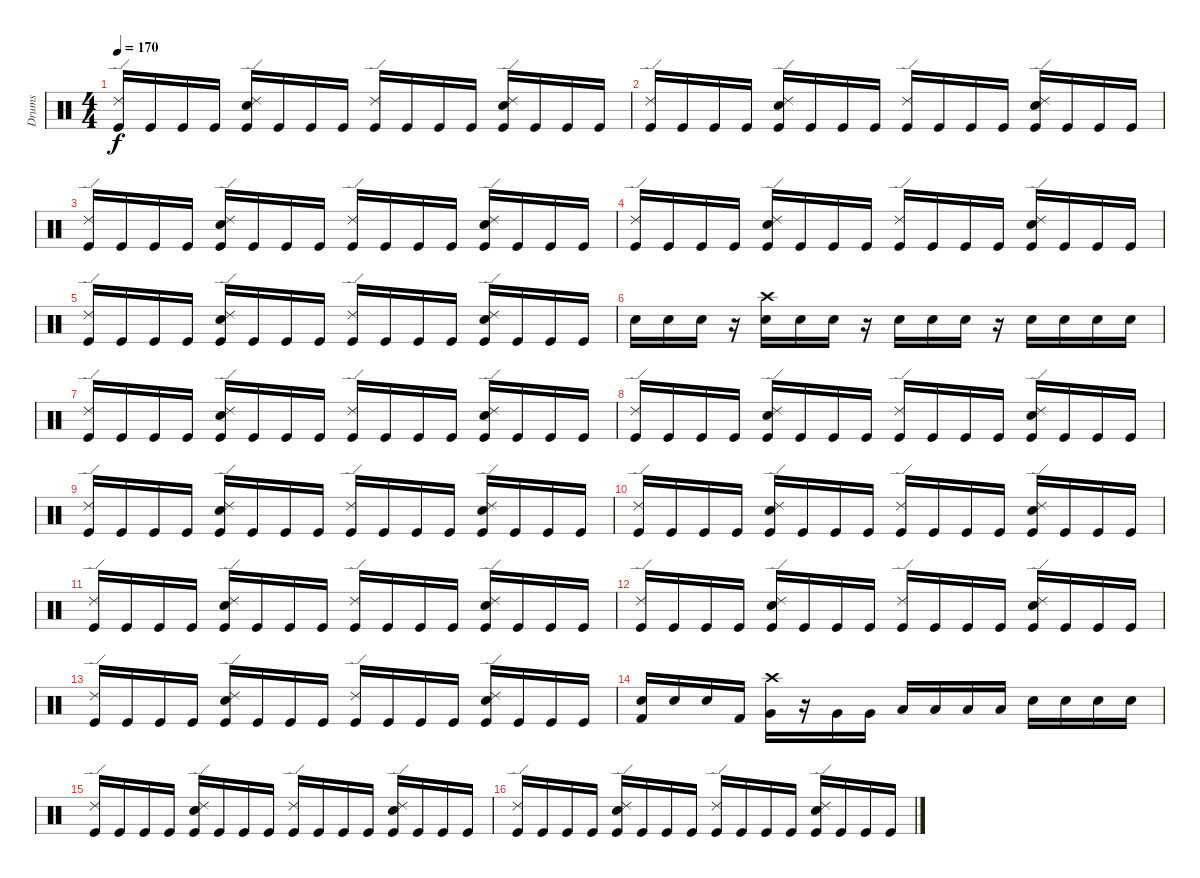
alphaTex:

\track ("Drums" "Drums") {instrument percussion}
\staff {score}
\articulation defaults
\ts (4 4)
\tempo 170
\clef neutral
\ks c
("Ride (edge) 2" "Kick (hit)").16{dy f} "Kick (hit)".16 "Kick (hit)".16 "Kick (hit)".16 ("Ride (edge) 2" "Electric Snare (hit)" "Kick (hit)").16 "Kick (hit)".16 "Kick (hit)".16 "Kick (hit)".16 ("Ride (edge) 2" "Kick (hit)").16 "Kick (hit)".16 "Kick (hit)".16 "Kick (hit)".16 ("Ride (edge) 2" "Electric Snare (hit)" "Kick (hit)").16 "Kick (hit)".16 "Kick (hit)".16 "Kick (hit)".16 |
("Ride (edge) 2" "Kick (hit)").16 "Kick (hit)".16 "Kick (hit)".16 "Kick (hit)".16 ("Ride (edge) 2" "Electric Snare (hit)" "Kick (hit)").16 "Kick (hit)".16 "Kick (hit)".16 "Kick (hit)".16 ("Ride (edge) 2" "Kick (hit)").16 "Kick (hit)".16 "Kick (hit)".16 "Kick (hit)".16 ("Ride (edge) 2" "Electric Snare (hit)" "Kick (hit)").16 "Kick (hit)".16 "Kick (hit)".16 "Kick (hit)".16 |
("Ride (edge) 2" "Kick (hit)").16 "Kick (hit)".16 "Kick (hit)".16 "Kick (hit)".16 ("Ride (edge) 2" "Electric Snare (hit)" "Kick (hit)").16 "Kick (hit)".16 "Kick (hit)".16 "Kick (hit)".16 ("Ride (edge) 2" "Kick (hit)").16 "Kick (hit)".16 "Kick (hit)".16 "Kick (hit)".16 ("Ride (edge) 2" "Electric Snare (hit)" "Kick (hit)").16 "Kick (hit)".16 "Kick (hit)".16 "Kick (hit)".16 |
("Ride (edge) 2" "Kick (hit)").16 "Kick (hit)".16 "Kick (hit)".16 "Kick (hit)".16 ("Ride (edge) 2" "Electric Snare (hit)" "Kick (hit)").16 "Kick (hit)".16 "Kick (hit)".16 "Kick (hit)".16 ("Ride (edge) 2" "Kick (hit)").16 "Kick (hit)".16 "Kick (hit)".16 "Kick (hit)".16 ("Ride (edge) 2" "Electric Snare (hit)" "Kick (hit)").16 "Kick (hit)".16 "Kick (hit)".16 "Kick (hit)".16 |
("Ride (edge) 2" "Kick (hit)").16 "Kick (hit)".16 "Kick (hit)".16 "Kick (hit)".16 ("Ride (edge) 2" "Electric Snare (hit)" "Kick (hit)").16 "Kick (hit)".16 "Kick (hit)".16 "Kick (hit)".16 ("Ride (edge) 2" "Kick (hit)").16 "Kick (hit)".16 "Kick (hit)".16 "Kick (hit)".16 ("Ride (edge) 2" "Electric Snare (hit)" "Kick (hit)").16 "Kick (hit)".16 "Kick (hit)".16 "Kick (hit)".16 |
"Electric Snare (hit)".16 "Electric Snare (hit)".16 "Electric Snare (hit)".16 r.16 ("Crash high (hit)" "Electric Snare (hit)").16 "Electric Snare (hit)".16 "Electric Snare (hit)".16 r.16 "Electric Snare (hit)".16 "Electric Snare (hit)".16 "Electric Snare (hit)".16 r.16 "Electric Snare (hit)".16 "Electric Snare (hit)".16 "Electric Snare (hit)".16 "Electric Snare (hit)".16 |
("Ride (edge) 2" "Kick (hit)").16 "Kick (hit)".16 "Kick (hit)".16 "Kick (hit)".16 ("Ride (edge) 2" "Electric Snare (hit)" "Kick (hit)").16 "Kick (hit)".16 "Kick (hit)".16 "Kick (hit)".16 ("Ride (edge) 2" "Kick (hit)").16 "Kick (hit)".16 "Kick (hit)".16 "Kick (hit)".16 ("Ride (edge) 2" "Electric Snare (hit)" "Kick (hit)").16 "Kick (hit)".16 "Kick (hit)".16 "Kick (hit)".16 |
("Ride (edge) 2" "Kick (hit)").16 "Kick (hit)".16 "Kick (hit)".16 "Kick (hit)".16 ("Ride (edge) 2" "Electric Snare (hit)" "Kick (hit)").16 "Kick (hit)".16 "Kick (hit)".16 "Kick (hit)".16 ("Ride (edge) 2" "Kick (hit)").16 "Kick (hit)".16 "Kick (hit)".16 "Kick (hit)".16 ("Ride (edge) 2" "Electric Snare (hit)" "Kick (hit)").16 "Kick (hit)".16 "Kick (hit)".16 "Kick (hit)".16 |
("Ride (edge) 2" "Kick (hit)").16 "Kick (hit)".16 "Kick (hit)".16 "Kick (hit)".16 ("Ride (edge) 2" "Electric Snare (hit)" "Kick (hit)").16 "Kick (hit)".16 "Kick (hit)".16 "Kick (hit)".16 ("Ride (edge) 2" "Kick (hit)").16 "Kick (hit)".16 "Kick (hit)".16 "Kick (hit)".16 ("Ride (edge) 2" "Electric Snare (hit)" "Kick (hit)").16 "Kick (hit)".16 "Kick (hit)".16 "Kick (hit)".16 |
("Ride (edge) 2" "Kick (hit)").16 "Kick (hit)".16 "Kick (hit)".16 "Kick (hit)".16 ("Ride (edge) 2" "Electric Snare (hit)" "Kick (hit)").16 "Kick (hit)".16 "Kick (hit)".16 "Kick (hit)".16 ("Ride (edge) 2" "Kick (hit)").16 "Kick (hit)".16 "Kick (hit)".16 "Kick (hit)".16 ("Ride (edge) 2" "Electric Snare (hit)" "Kick (hit)").16 "Kick (hit)".16 "Kick (hit)".16 "Kick (hit)".16 |
("Ride (edge) 2" "Kick (hit)").16 "Kick (hit)".16 "Kick (hit)".16 "Kick (hit)".16 ("Ride (edge) 2" "Electric Snare (hit)" "Kick (hit)").16 "Kick (hit)".16 "Kick (hit)".16 "Kick (hit)".16 ("Ride (edge) 2" "Kick (hit)").16 "Kick (hit)".16 "Kick (hit)".16 "Kick (hit)".16 ("Ride (edge) 2" "Electric Snare (hit)" "Kick (hit)").16 "Kick (hit)".16 "Kick (hit)".16 "Kick (hit)".16 |
("Ride (edge) 2" "Kick (hit)").16 "Kick (hit)".16 "Kick (hit)".16 "Kick (hit)".16 ("Ride (edge) 2" "Electric Snare (hit)" "Kick (hit)").16 "Kick (hit)".16 "Kick (hit)".16 "Kick (hit)".16 ("Ride (edge) 2" "Kick (hit)").16 "Kick (hit)".16 "Kick (hit)".16 "Kick (hit)".16 ("Ride (edge) 2" "Electric Snare (hit)" "Kick (hit)").16 "Kick (hit)".16 "Kick (hit)".16 "Kick (hit)".16 |
("Ride (edge) 2" "Kick (hit)").16 "Kick (hit)".16 "Kick (hit)".16 "Kick (hit)".16 ("Ride (edge) 2" "Electric Snare (hit)" "Kick (hit)").16 "Kick (hit)".16 "Kick (hit)".16 "Kick (hit)".16 ("Ride (edge) 2" "Kick (hit)").16 "Kick (hit)".16 "Kick (hit)".16 "Kick (hit)".16 ("Ride (edge) 2" "Electric Snare (hit)" "Kick (hit)").16 "Kick (hit)".16 "Kick (hit)".16 "Kick (hit)".16 |
("Electric Snare (hit)" "Kick (hit) 2").16 "Electric Snare (hit)".16 "Electric Snare (hit)".16 "Kick (hit) 2".16 ("Crash high (hit)" "Very Low Tom (hit)").16 r.16 "Very Low Tom (hit)".16 "Very Low Tom (hit)".16 "Low Tom (hit)".16 "Low Tom (hit)".16 "Low Tom (hit)".16 "Low Tom (hit)".16 "Electric Snare (hit)".16 "Electric Snare (hit)".16 "Electric Snare (hit)".16 "Electric Snare (hit)".16 |
("Ride (edge) 2" "Kick (hit)").16 "Kick (hit)".16 "Kick (hit)".16 "Kick (hit)".16 ("Ride (edge) 2" "Electric Snare (hit)" "Kick (hit)").16 "Kick (hit)".16 "Kick (hit)".16 "Kick (hit)".16 ("Ride (edge) 2" "Kick (hit)").16 "Kick (hit)".16 "Kick (hit)".16 "Kick (hit)".16 ("Ride (edge) 2" "Electric Snare (hit)" "Kick (hit)").16 "Kick (hit)".16 "Kick (hit)".16 "Kick (hit)".16 |
("Ride (edge) 2" "Kick (hit)").16 "Kick (hit)".16 "Kick (hit)".16 "Kick (hit)".16 ("Ride (edge) 2" "Electric Snare (hit)" "Kick (hit)").16 "Kick (hit)".16 "Kick (hit)".16 "Kick (hit)".16 ("Ride (edge) 2" "Kick (hit)").16 "Kick (hit)".16 "Kick (hit)".16 "Kick (hit)".16 ("Ride (edge) 2" "Electric Snare (hit)" "Kick (hit)").16 "Kick (hit)".16 "Kick (hit)".16 "Kick (hit)".16
